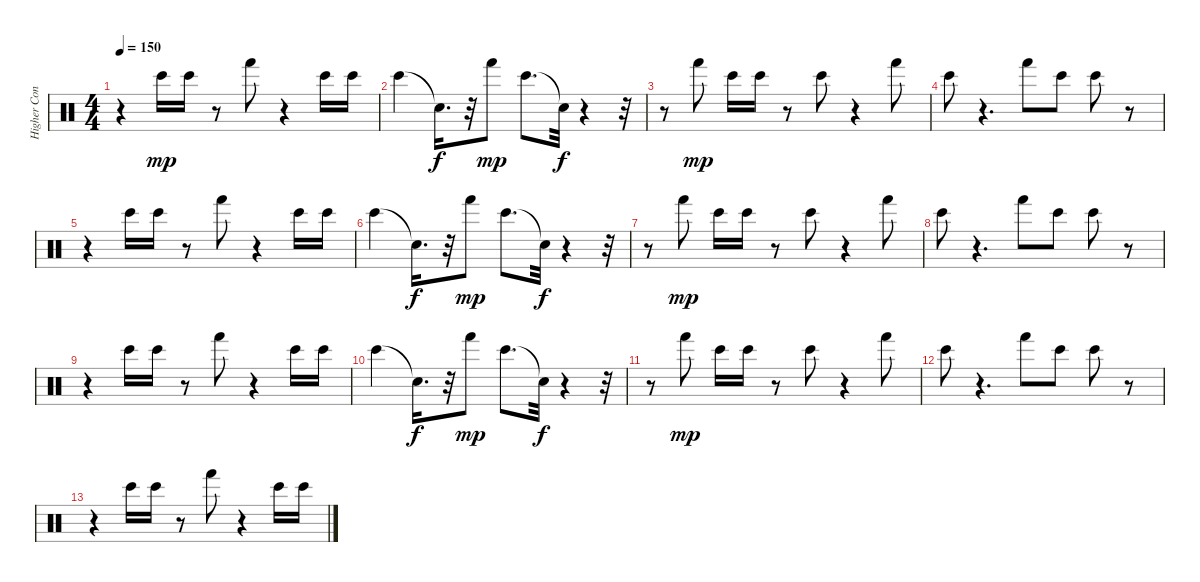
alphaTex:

\track ("Higher Conga Drum" "Higher Con") {instrument percussion}
\staff {score}
\articulation defaults
\ts (4 4)
\tempo 150
\clef neutral
\ks c
r.4{dy mp} "Bongo High (hit)".16 "Bongo High (hit)".16 r.8 "Hand (hit)".8 r.4 "Bongo High (hit)".16 "Bongo High (hit)".16 |
"Bongo High (hit)".4 "Snare (hit)"{t}.16{d dy f} r.32 "Hand (hit)".8{dy mp} "Bongo High (hit)".8{d} "Snare (hit)"{t}.32{dy f} r.4 r.32 |
r.8 "Hand (hit)".8{dy mp} "Bongo High (hit)".16 "Bongo High (hit)".16 r.8 "Bongo High (hit)".8 r.4 "Hand (hit)".8 |
"Bongo High (hit)".8 r.4{d} "Hand (hit)".8 "Bongo High (hit)".8 "Bongo High (hit)".8 r.8 |
r.4 "Bongo High (hit)".16 "Bongo High (hit)".16 r.8 "Hand (hit)".8 r.4 "Bongo High (hit)".16 "Bongo High (hit)".16 |
"Bongo High (hit)".4 "Snare (hit)"{t}.16{d dy f} r.32 "Hand (hit)".8{dy mp} "Bongo High (hit)".8{d} "Snare (hit)"{t}.32{dy f} r.4 r.32 |
r.8 "Hand (hit)".8{dy mp} "Bongo High (hit)".16 "Bongo High (hit)".16 r.8 "Bongo High (hit)".8 r.4 "Hand (hit)".8 |
"Bongo High (hit)".8 r.4{d} "Hand (hit)".8 "Bongo High (hit)".8 "Bongo High (hit)".8 r.8 |
r.4 "Bongo High (hit)".16 "Bongo High (hit)".16 r.8 "Hand (hit)".8 r.4 "Bongo High (hit)".16 "Bongo High (hit)".16 |
"Bongo High (hit)".4 "Snare (hit)"{t}.16{d dy f} r.32 "Hand (hit)".8{dy mp} "Bongo High (hit)".8{d} "Snare (hit)"{t}.32{dy f} r.4 r.32 |
r.8 "Hand (hit)".8{dy mp} "Bongo High (hit)".16 "Bongo High (hit)".16 r.8 "Bongo High (hit)".8 r.4 "Hand (hit)".8 |
"Bongo High (hit)".8 r.4{d} "Hand (hit)".8 "Bongo High (hit)".8 "Bongo High (hit)".8 r.8 |
r.4 "Bongo High (hit)".16 "Bongo High (hit)".16 r.8 "Hand (hit)".8 r.4 "Bongo High (hit)".16 "Bongo High (hit)".16
